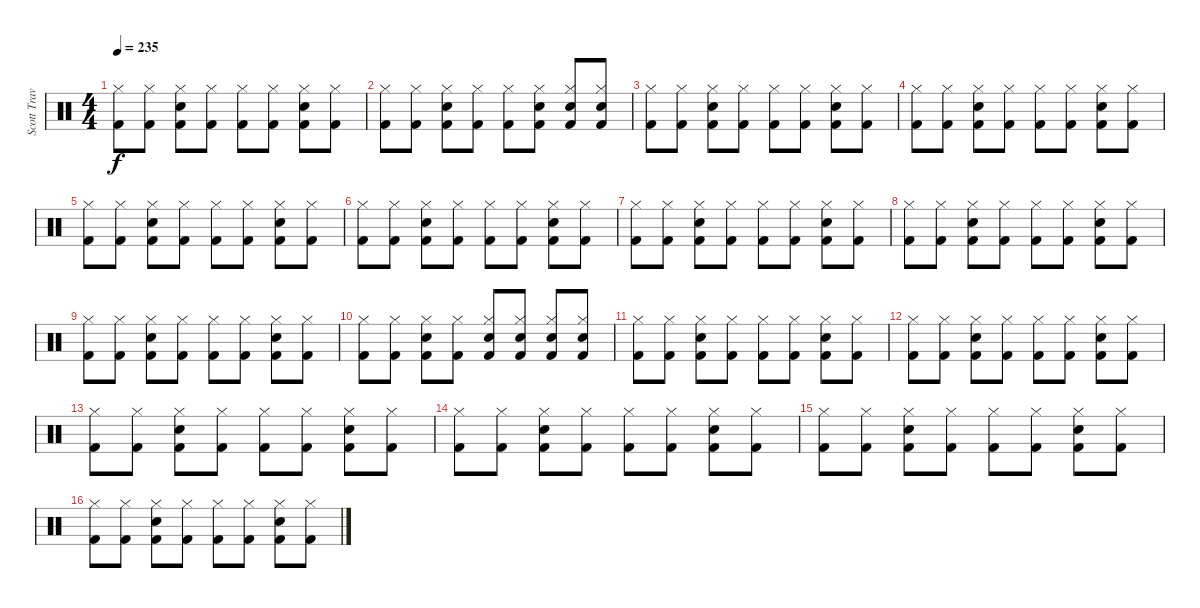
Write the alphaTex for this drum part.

\track ("Scott Travis" "Scott Trav") {instrument percussion}
\staff {score}
\articulation defaults
\ts (4 4)
\tempo 235
\clef neutral
\ks c
("Kick (hit) 2" "Hi-Hat (closed)").8{dy f} ("Kick (hit) 2" "Hi-Hat (closed)").8 ("Kick (hit) 2" "Snare (hit) 2" "Hi-Hat (closed)").8 ("Kick (hit) 2" "Hi-Hat (closed)").8 ("Kick (hit) 2" "Hi-Hat (closed)").8 ("Kick (hit) 2" "Hi-Hat (closed)").8 ("Kick (hit) 2" "Hi-Hat (closed)" "Snare (hit) 2").8 ("Kick (hit) 2" "Hi-Hat (closed)").8 |
("Kick (hit) 2" "Hi-Hat (closed)").8 ("Kick (hit) 2" "Hi-Hat (closed)").8 ("Kick (hit) 2" "Snare (hit) 2" "Hi-Hat (closed)").8 ("Kick (hit) 2" "Hi-Hat (closed)").8 ("Kick (hit) 2" "Hi-Hat (closed)").8 ("Kick (hit) 2" "Hi-Hat (closed)" "Snare (hit) 2").8 ("Kick (hit) 2" "Hi-Hat (closed)" "Snare (hit) 2").8 ("Kick (hit) 2" "Hi-Hat (closed)" "Snare (hit) 2").8 |
("Kick (hit) 2" "Hi-Hat (closed)").8 ("Kick (hit) 2" "Hi-Hat (closed)").8 ("Kick (hit) 2" "Snare (hit) 2" "Hi-Hat (closed)").8 ("Kick (hit) 2" "Hi-Hat (closed)").8 ("Kick (hit) 2" "Hi-Hat (closed)").8 ("Kick (hit) 2" "Hi-Hat (closed)").8 ("Kick (hit) 2" "Hi-Hat (closed)" "Snare (hit) 2").8 ("Kick (hit) 2" "Hi-Hat (closed)").8 |
("Kick (hit) 2" "Hi-Hat (closed)").8 ("Kick (hit) 2" "Hi-Hat (closed)").8 ("Kick (hit) 2" "Snare (hit) 2" "Hi-Hat (closed)").8 ("Kick (hit) 2" "Hi-Hat (closed)").8 ("Kick (hit) 2" "Hi-Hat (closed)").8 ("Kick (hit) 2" "Hi-Hat (closed)").8 ("Kick (hit) 2" "Hi-Hat (closed)" "Snare (hit) 2").8 ("Kick (hit) 2" "Hi-Hat (closed)").8 |
("Kick (hit) 2" "Hi-Hat (closed)").8 ("Kick (hit) 2" "Hi-Hat (closed)").8 ("Kick (hit) 2" "Snare (hit) 2" "Hi-Hat (closed)").8 ("Kick (hit) 2" "Hi-Hat (closed)").8 ("Kick (hit) 2" "Hi-Hat (closed)").8 ("Kick (hit) 2" "Hi-Hat (closed)").8 ("Kick (hit) 2" "Hi-Hat (closed)" "Snare (hit) 2").8 ("Kick (hit) 2" "Hi-Hat (closed)").8 |
("Kick (hit) 2" "Hi-Hat (closed)").8 ("Kick (hit) 2" "Hi-Hat (closed)").8 ("Kick (hit) 2" "Snare (hit) 2" "Hi-Hat (closed)").8 ("Kick (hit) 2" "Hi-Hat (closed)").8 ("Kick (hit) 2" "Hi-Hat (closed)").8 ("Kick (hit) 2" "Hi-Hat (closed)").8 ("Kick (hit) 2" "Hi-Hat (closed)" "Snare (hit) 2").8 ("Kick (hit) 2" "Hi-Hat (closed)").8 |
("Kick (hit) 2" "Hi-Hat (closed)").8 ("Kick (hit) 2" "Hi-Hat (closed)").8 ("Kick (hit) 2" "Snare (hit) 2" "Hi-Hat (closed)").8 ("Kick (hit) 2" "Hi-Hat (closed)").8 ("Kick (hit) 2" "Hi-Hat (closed)").8 ("Kick (hit) 2" "Hi-Hat (closed)").8 ("Kick (hit) 2" "Hi-Hat (closed)" "Snare (hit) 2").8 ("Kick (hit) 2" "Hi-Hat (closed)").8 |
("Kick (hit) 2" "Hi-Hat (closed)").8 ("Kick (hit) 2" "Hi-Hat (closed)").8 ("Kick (hit) 2" "Snare (hit) 2" "Hi-Hat (closed)").8 ("Kick (hit) 2" "Hi-Hat (closed)").8 ("Kick (hit) 2" "Hi-Hat (closed)").8 ("Kick (hit) 2" "Hi-Hat (closed)").8 ("Kick (hit) 2" "Hi-Hat (closed)" "Snare (hit) 2").8 ("Kick (hit) 2" "Hi-Hat (closed)").8 |
("Kick (hit) 2" "Hi-Hat (closed)").8 ("Kick (hit) 2" "Hi-Hat (closed)").8 ("Kick (hit) 2" "Snare (hit) 2" "Hi-Hat (closed)").8 ("Kick (hit) 2" "Hi-Hat (closed)").8 ("Kick (hit) 2" "Hi-Hat (closed)").8 ("Kick (hit) 2" "Hi-Hat (closed)").8 ("Kick (hit) 2" "Hi-Hat (closed)" "Snare (hit) 2").8 ("Kick (hit) 2" "Hi-Hat (closed)").8 |
("Kick (hit) 2" "Hi-Hat (closed)").8 ("Kick (hit) 2" "Hi-Hat (closed)").8 ("Kick (hit) 2" "Snare (hit) 2" "Hi-Hat (closed)").8 ("Kick (hit) 2" "Hi-Hat (closed)").8 ("Kick (hit) 2" "Hi-Hat (closed)" "Snare (hit) 2").8 ("Kick (hit) 2" "Hi-Hat (closed)" "Snare (hit) 2").8 ("Kick (hit) 2" "Hi-Hat (closed)" "Snare (hit) 2").8 ("Kick (hit) 2" "Hi-Hat (closed)" "Snare (hit) 2").8 |
("Kick (hit) 2" "Hi-Hat (closed)").8 ("Kick (hit) 2" "Hi-Hat (closed)").8 ("Kick (hit) 2" "Snare (hit) 2" "Hi-Hat (closed)").8 ("Kick (hit) 2" "Hi-Hat (closed)").8 ("Kick (hit) 2" "Hi-Hat (closed)").8 ("Kick (hit) 2" "Hi-Hat (closed)").8 ("Kick (hit) 2" "Hi-Hat (closed)" "Snare (hit) 2").8 ("Kick (hit) 2" "Hi-Hat (closed)").8 |
("Kick (hit) 2" "Hi-Hat (closed)").8 ("Kick (hit) 2" "Hi-Hat (closed)").8 ("Kick (hit) 2" "Snare (hit) 2" "Hi-Hat (closed)").8 ("Kick (hit) 2" "Hi-Hat (closed)").8 ("Kick (hit) 2" "Hi-Hat (closed)").8 ("Kick (hit) 2" "Hi-Hat (closed)").8 ("Kick (hit) 2" "Hi-Hat (closed)" "Snare (hit) 2").8 ("Kick (hit) 2" "Hi-Hat (closed)").8 |
("Kick (hit) 2" "Hi-Hat (closed)").8 ("Kick (hit) 2" "Hi-Hat (closed)").8 ("Kick (hit) 2" "Snare (hit) 2" "Hi-Hat (closed)").8 ("Kick (hit) 2" "Hi-Hat (closed)").8 ("Kick (hit) 2" "Hi-Hat (closed)").8 ("Kick (hit) 2" "Hi-Hat (closed)").8 ("Kick (hit) 2" "Hi-Hat (closed)" "Snare (hit) 2").8 ("Kick (hit) 2" "Hi-Hat (closed)").8 |
("Kick (hit) 2" "Hi-Hat (closed)").8 ("Kick (hit) 2" "Hi-Hat (closed)").8 ("Kick (hit) 2" "Snare (hit) 2" "Hi-Hat (closed)").8 ("Kick (hit) 2" "Hi-Hat (closed)").8 ("Kick (hit) 2" "Hi-Hat (closed)").8 ("Kick (hit) 2" "Hi-Hat (closed)").8 ("Kick (hit) 2" "Hi-Hat (closed)" "Snare (hit) 2").8 ("Kick (hit) 2" "Hi-Hat (closed)").8 |
("Kick (hit) 2" "Hi-Hat (closed)").8 ("Kick (hit) 2" "Hi-Hat (closed)").8 ("Kick (hit) 2" "Snare (hit) 2" "Hi-Hat (closed)").8 ("Kick (hit) 2" "Hi-Hat (closed)").8 ("Kick (hit) 2" "Hi-Hat (closed)").8 ("Kick (hit) 2" "Hi-Hat (closed)").8 ("Kick (hit) 2" "Hi-Hat (closed)" "Snare (hit) 2").8 ("Kick (hit) 2" "Hi-Hat (closed)").8 |
("Kick (hit) 2" "Hi-Hat (closed)").8 ("Kick (hit) 2" "Hi-Hat (closed)").8 ("Kick (hit) 2" "Snare (hit) 2" "Hi-Hat (closed)").8 ("Kick (hit) 2" "Hi-Hat (closed)").8 ("Kick (hit) 2" "Hi-Hat (closed)").8 ("Kick (hit) 2" "Hi-Hat (closed)").8 ("Kick (hit) 2" "Hi-Hat (closed)" "Snare (hit) 2").8 ("Kick (hit) 2" "Hi-Hat (closed)").8
